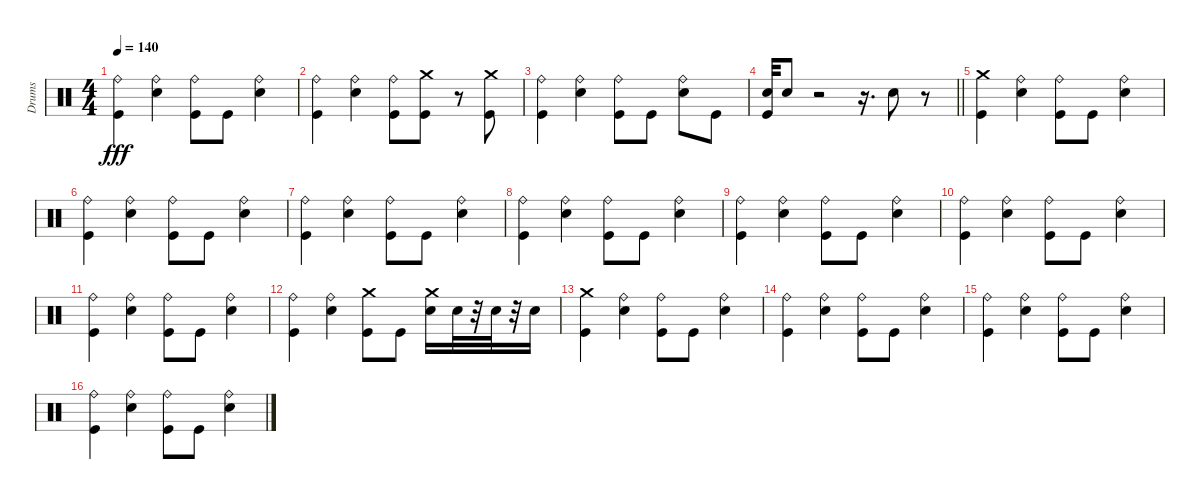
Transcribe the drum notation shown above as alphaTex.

\track ("Drums" "Drums") {instrument percussion}
\staff {score}
\articulation defaults
\ts (4 4)
\tempo 140
\clef neutral
\ks c
("Ride (bell)" "Kick (hit)").4{dy fff} ("Ride (bell)" "Electric Snare (hit)").4 ("Ride (bell)" "Kick (hit)").8 "Kick (hit)".8 ("Ride (bell)" "Electric Snare (hit)").4 |
("Ride (bell)" "Kick (hit)").4 ("Ride (bell)" "Electric Snare (hit)").4 ("Ride (bell)" "Kick (hit)").8 ("Crash medium (hit)" "Kick (hit)").8 r.8 ("Crash medium (hit)" "Kick (hit)").8 |
("Ride (bell)" "Kick (hit)").4 ("Ride (bell)" "Electric Snare (hit)").4 ("Ride (bell)" "Kick (hit)").8 "Kick (hit)".8 ("Ride (bell)" "Electric Snare (hit)").8 "Kick (hit)".8 |
\barLineRight lightlight
("Electric Snare (hit)" "Kick (hit)").32 "Electric Snare (hit)".8 r.2 r.16{d} "Electric Snare (hit)".8 r.8 |
("Crash medium (hit)" "Kick (hit)").4 ("Ride (bell)" "Electric Snare (hit)").4 ("Ride (bell)" "Kick (hit)").8 "Kick (hit)".8 ("Ride (bell)" "Electric Snare (hit)").4 |
("Ride (bell)" "Kick (hit)").4 ("Ride (bell)" "Electric Snare (hit)").4 ("Ride (bell)" "Kick (hit)").8 "Kick (hit)".8 ("Ride (bell)" "Electric Snare (hit)").4 |
("Ride (bell)" "Kick (hit)").4 ("Ride (bell)" "Electric Snare (hit)").4 ("Ride (bell)" "Kick (hit)").8 "Kick (hit)".8 ("Ride (bell)" "Electric Snare (hit)").4 |
("Ride (bell)" "Kick (hit)").4 ("Ride (bell)" "Electric Snare (hit)").4 ("Ride (bell)" "Kick (hit)").8 "Kick (hit)".8 ("Ride (bell)" "Electric Snare (hit)").4 |
("Ride (bell)" "Kick (hit)").4 ("Ride (bell)" "Electric Snare (hit)").4 ("Ride (bell)" "Kick (hit)").8 "Kick (hit)".8 ("Ride (bell)" "Electric Snare (hit)").4 |
("Ride (bell)" "Kick (hit)").4 ("Ride (bell)" "Electric Snare (hit)").4 ("Ride (bell)" "Kick (hit)").8 "Kick (hit)".8 ("Ride (bell)" "Electric Snare (hit)").4 |
("Ride (bell)" "Kick (hit)").4 ("Ride (bell)" "Electric Snare (hit)").4 ("Ride (bell)" "Kick (hit)").8 "Kick (hit)".8 ("Ride (bell)" "Electric Snare (hit)").4 |
("Ride (bell)" "Kick (hit)").4 ("Ride (bell)" "Electric Snare (hit)").4 ("Crash medium (hit)" "Kick (hit)").8 "Kick (hit)".8 ("Crash medium (hit)" "Electric Snare (hit)").16 "Electric Snare (hit)".32 r.32 "Electric Snare (hit)".32 r.32 "Electric Snare (hit)".16 |
("Crash medium (hit)" "Kick (hit)").4 ("Ride (bell)" "Electric Snare (hit)").4 ("Ride (bell)" "Kick (hit)").8 "Kick (hit)".8 ("Ride (bell)" "Electric Snare (hit)").4 |
("Ride (bell)" "Kick (hit)").4 ("Ride (bell)" "Electric Snare (hit)").4 ("Ride (bell)" "Kick (hit)").8 "Kick (hit)".8 ("Ride (bell)" "Electric Snare (hit)").4 |
("Ride (bell)" "Kick (hit)").4 ("Ride (bell)" "Electric Snare (hit)").4 ("Ride (bell)" "Kick (hit)").8 "Kick (hit)".8 ("Ride (bell)" "Electric Snare (hit)").4 |
("Ride (bell)" "Kick (hit)").4 ("Ride (bell)" "Electric Snare (hit)").4 ("Ride (bell)" "Kick (hit)").8 "Kick (hit)".8 ("Ride (bell)" "Electric Snare (hit)").4
